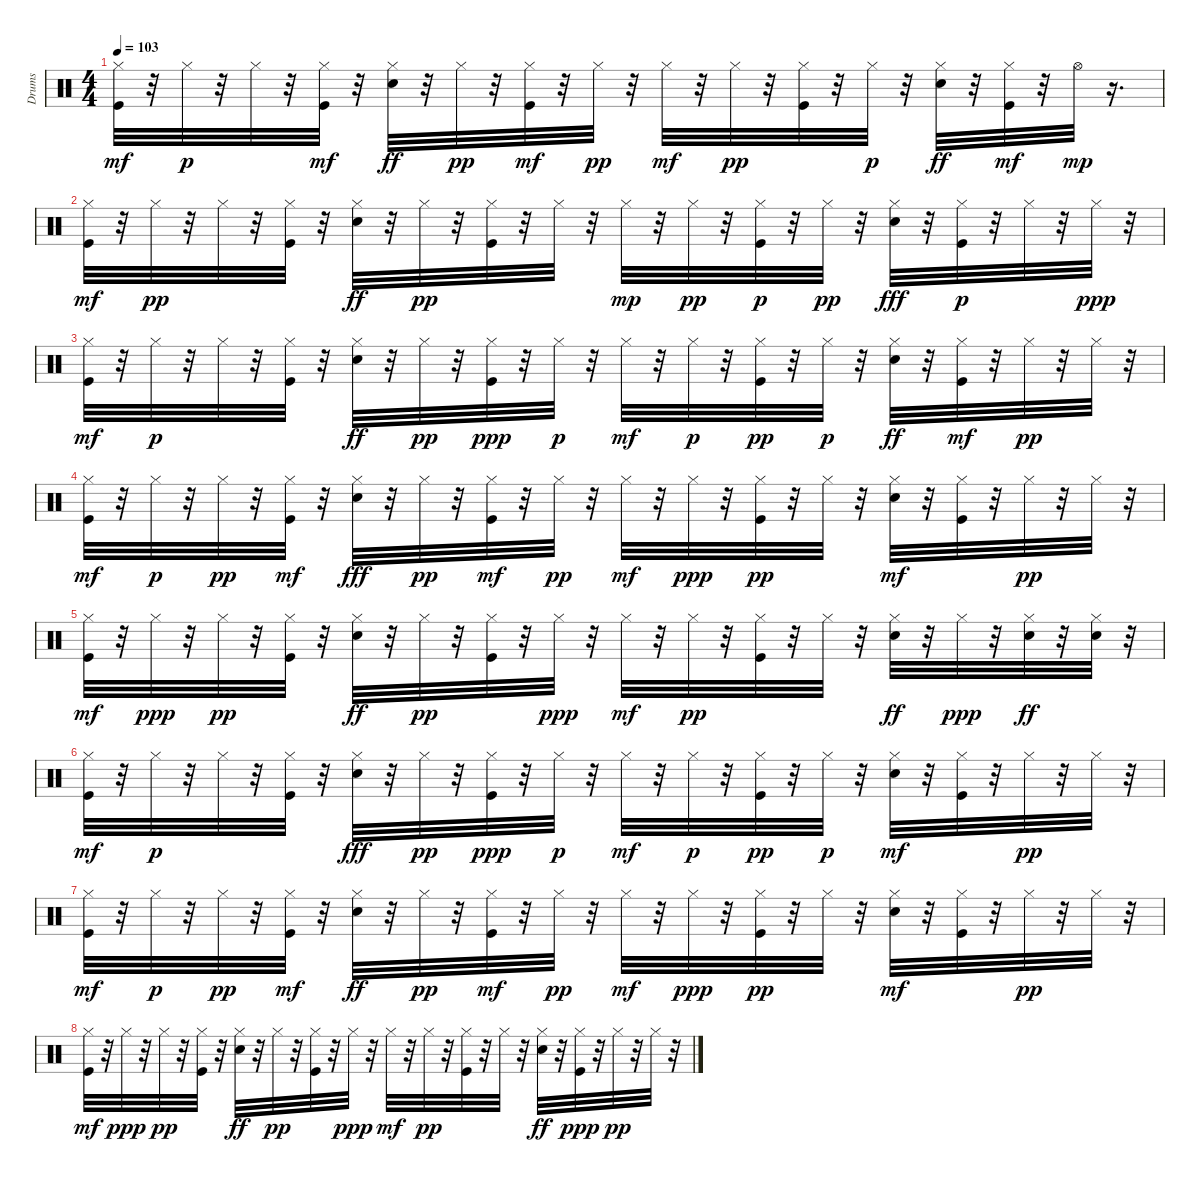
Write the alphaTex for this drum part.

\track ("Drums" "Drums") {instrument percussion}
\staff {score}
\articulation defaults
\ts (4 4)
\tempo 103
\clef neutral
\ks c
("Hi-Hat (closed)" "Kick (hit)").32{dy mf} r.32 "Hi-Hat (closed)".32{dy p} r.32 "Hi-Hat (closed)".32 r.32 ("Hi-Hat (closed)" "Kick (hit)").32{dy mf} r.32 ("Hi-Hat (closed)" "Snare (hit) 2").32{dy ff} r.32 "Hi-Hat (closed)".32{dy pp} r.32 ("Hi-Hat (closed)" "Kick (hit)").32{dy mf} r.32 "Hi-Hat (closed)".32{dy pp} r.32 "Hi-Hat (closed)".32{dy mf} r.32 "Hi-Hat (closed)".32{dy pp} r.32 ("Kick (hit)" "Hi-Hat (closed)").32 r.32 "Hi-Hat (closed)".32{dy p} r.32 ("Hi-Hat (closed)" "Snare (hit) 2").32{dy ff} r.32 ("Hi-Hat (closed)" "Kick (hit)").32{dy mf} r.32 "Hi-Hat (open)".32{dy mp} r.16{d} |
("Hi-Hat (closed)" "Kick (hit)").32{dy mf} r.32 "Hi-Hat (closed)".32{dy pp} r.32 "Hi-Hat (closed)".32 r.32 ("Hi-Hat (closed)" "Kick (hit)").32 r.32 ("Hi-Hat (closed)" "Snare (hit) 2").32{dy ff} r.32 "Hi-Hat (closed)".32{dy pp} r.32 ("Hi-Hat (closed)" "Kick (hit)").32 r.32 "Hi-Hat (closed)".32 r.32 "Hi-Hat (closed)".32{dy mp} r.32 "Hi-Hat (closed)".32{dy pp} r.32 ("Hi-Hat (closed)" "Kick (hit)").32{dy p} r.32 "Hi-Hat (closed)".32{dy pp} r.32 ("Hi-Hat (closed)" "Snare (hit) 2").32{dy fff} r.32 ("Hi-Hat (closed)" "Kick (hit)").32{dy p} r.32 "Hi-Hat (closed)".32 r.32 "Hi-Hat (closed)".32{dy ppp} r.32 |
("Kick (hit)" "Hi-Hat (closed)").32{dy mf} r.32 "Hi-Hat (closed)".32{dy p} r.32 "Hi-Hat (closed)".32 r.32 ("Kick (hit)" "Hi-Hat (closed)").32 r.32 ("Hi-Hat (closed)" "Snare (hit) 2").32{dy ff} r.32 "Hi-Hat (closed)".32{dy pp} r.32 ("Hi-Hat (closed)" "Kick (hit)").32{dy ppp} r.32 "Hi-Hat (closed)".32{dy p} r.32 "Hi-Hat (closed)".32{dy mf} r.32 "Hi-Hat (closed)".32{dy p} r.32 ("Kick (hit)" "Hi-Hat (closed)").32{dy pp} r.32 "Hi-Hat (closed)".32{dy p} r.32 ("Hi-Hat (closed)" "Snare (hit) 2").32{dy ff} r.32 ("Hi-Hat (closed)" "Kick (hit)").32{dy mf} r.32 "Hi-Hat (closed)".32{dy pp} r.32 "Hi-Hat (closed)".32 r.32 |
("Hi-Hat (closed)" "Kick (hit)").32{dy mf} r.32 "Hi-Hat (closed)".32{dy p} r.32 "Hi-Hat (closed)".32{dy pp} r.32 ("Hi-Hat (closed)" "Kick (hit)").32{dy mf} r.32 ("Hi-Hat (closed)" "Snare (hit) 2").32{dy fff} r.32 "Hi-Hat (closed)".32{dy pp} r.32 ("Hi-Hat (closed)" "Kick (hit)").32{dy mf} r.32 "Hi-Hat (closed)".32{dy pp} r.32 "Hi-Hat (closed)".32{dy mf} r.32 "Hi-Hat (closed)".32{dy ppp} r.32 ("Kick (hit)" "Hi-Hat (closed)").32{dy pp} r.32 "Hi-Hat (closed)".32 r.32 ("Snare (hit) 2" "Hi-Hat (closed)").32{dy mf} r.32 ("Hi-Hat (closed)" "Kick (hit)").32 r.32 "Hi-Hat (closed)".32{dy pp} r.32 "Hi-Hat (closed)".32 r.32 |
("Hi-Hat (closed)" "Kick (hit)").32{dy mf} r.32 "Hi-Hat (closed)".32{dy ppp} r.32 "Hi-Hat (closed)".32{dy pp} r.32 ("Kick (hit)" "Hi-Hat (closed)").32 r.32 ("Hi-Hat (closed)" "Snare (hit) 2").32{dy ff} r.32 "Hi-Hat (closed)".32{dy pp} r.32 ("Hi-Hat (closed)" "Kick (hit)").32 r.32 "Hi-Hat (closed)".32{dy ppp} r.32 "Hi-Hat (closed)".32{dy mf} r.32 "Hi-Hat (closed)".32{dy pp} r.32 ("Hi-Hat (closed)" "Kick (hit)").32 r.32 "Hi-Hat (closed)".32 r.32 ("Hi-Hat (closed)" "Snare (hit) 2").32{dy ff} r.32 "Hi-Hat (closed)".32{dy ppp} r.32 ("Hi-Hat (closed)" "Snare (hit) 2").32{dy ff} r.32 ("Hi-Hat (closed)" "Snare (hit) 2").32 r.32 |
("Hi-Hat (closed)" "Kick (hit)").32{dy mf} r.32 "Hi-Hat (closed)".32{dy p} r.32 "Hi-Hat (closed)".32 r.32 ("Kick (hit)" "Hi-Hat (closed)").32 r.32 ("Hi-Hat (closed)" "Snare (hit) 2").32{dy fff} r.32 "Hi-Hat (closed)".32{dy pp} r.32 ("Hi-Hat (closed)" "Kick (hit)").32{dy ppp} r.32 "Hi-Hat (closed)".32{dy p} r.32 "Hi-Hat (closed)".32{dy mf} r.32 "Hi-Hat (closed)".32{dy p} r.32 ("Kick (hit)" "Hi-Hat (closed)").32{dy pp} r.32 "Hi-Hat (closed)".32{dy p} r.32 ("Snare (hit) 2" "Hi-Hat (closed)").32{dy mf} r.32 ("Hi-Hat (closed)" "Kick (hit)").32 r.32 "Hi-Hat (closed)".32{dy pp} r.32 "Hi-Hat (closed)".32 r.32 |
("Hi-Hat (closed)" "Kick (hit)").32{dy mf} r.32 "Hi-Hat (closed)".32{dy p} r.32 "Hi-Hat (closed)".32{dy pp} r.32 ("Hi-Hat (closed)" "Kick (hit)").32{dy mf} r.32 ("Hi-Hat (closed)" "Snare (hit) 2").32{dy ff} r.32 "Hi-Hat (closed)".32{dy pp} r.32 ("Hi-Hat (closed)" "Kick (hit)").32{dy mf} r.32 "Hi-Hat (closed)".32{dy pp} r.32 "Hi-Hat (closed)".32{dy mf} r.32 "Hi-Hat (closed)".32{dy ppp} r.32 ("Kick (hit)" "Hi-Hat (closed)").32{dy pp} r.32 "Hi-Hat (closed)".32 r.32 ("Hi-Hat (closed)" "Snare (hit) 2").32{dy mf} r.32 ("Hi-Hat (closed)" "Kick (hit)").32 r.32 "Hi-Hat (closed)".32{dy pp} r.32 "Hi-Hat (closed)".32 r.32 |
("Hi-Hat (closed)" "Kick (hit)").32{dy mf} r.32 "Hi-Hat (closed)".32{dy ppp} r.32 "Hi-Hat (closed)".32{dy pp} r.32 ("Hi-Hat (closed)" "Kick (hit)").32 r.32 ("Hi-Hat (closed)" "Snare (hit) 2").32{dy ff} r.32 "Hi-Hat (closed)".32{dy pp} r.32 ("Hi-Hat (closed)" "Kick (hit)").32 r.32 "Hi-Hat (closed)".32{dy ppp} r.32 "Hi-Hat (closed)".32{dy mf} r.32 "Hi-Hat (closed)".32{dy pp} r.32 ("Hi-Hat (closed)" "Kick (hit)").32 r.32 "Hi-Hat (closed)".32 r.32 ("Hi-Hat (closed)" "Snare (hit) 2").32{dy ff} r.32 ("Hi-Hat (closed)" "Kick (hit)").32{dy ppp} r.32 "Hi-Hat (closed)".32{dy pp} r.32 "Hi-Hat (closed)".32 r.32
